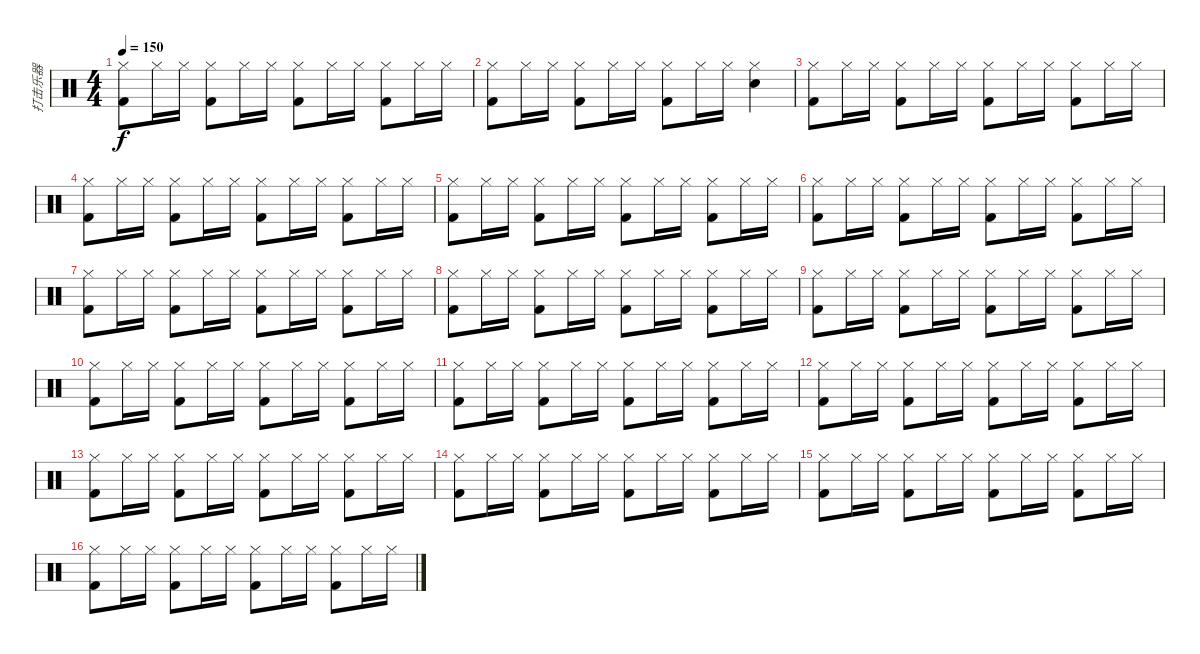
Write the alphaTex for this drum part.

\track ("打击乐器" "打击乐器") {instrument percussion}
\staff {score}
\articulation defaults
\ts (4 4)
\tempo 150
\clef neutral
\ks c
("Hi-Hat (closed)" "Kick (hit) 2").8{dy f} "Hi-Hat (closed)".16 "Hi-Hat (closed)".16 ("Hi-Hat (closed)" "Kick (hit) 2").8 "Hi-Hat (closed)".16 "Hi-Hat (closed)".16 ("Hi-Hat (closed)" "Kick (hit) 2").8 "Hi-Hat (closed)".16 "Hi-Hat (closed)".16 ("Hi-Hat (closed)" "Kick (hit) 2").8 "Hi-Hat (closed)".16 "Hi-Hat (closed)".16 |
("Hi-Hat (closed)" "Kick (hit) 2").8 "Hi-Hat (closed)".16 "Hi-Hat (closed)".16 ("Hi-Hat (closed)" "Kick (hit) 2").8 "Hi-Hat (closed)".16 "Hi-Hat (closed)".16 ("Hi-Hat (closed)" "Kick (hit) 2").8 "Hi-Hat (closed)".16 "Hi-Hat (closed)".16 ("Hi-Hat (closed)" "Snare (hit) 2").4 |
("Hi-Hat (closed)" "Kick (hit) 2").8 "Hi-Hat (closed)".16 "Hi-Hat (closed)".16 ("Hi-Hat (closed)" "Kick (hit) 2").8 "Hi-Hat (closed)".16 "Hi-Hat (closed)".16 ("Hi-Hat (closed)" "Kick (hit) 2").8 "Hi-Hat (closed)".16 "Hi-Hat (closed)".16 ("Hi-Hat (closed)" "Kick (hit) 2").8 "Hi-Hat (closed)".16 "Hi-Hat (closed)".16 |
("Hi-Hat (closed)" "Kick (hit) 2").8 "Hi-Hat (closed)".16 "Hi-Hat (closed)".16 ("Hi-Hat (closed)" "Kick (hit) 2").8 "Hi-Hat (closed)".16 "Hi-Hat (closed)".16 ("Hi-Hat (closed)" "Kick (hit) 2").8 "Hi-Hat (closed)".16 "Hi-Hat (closed)".16 ("Hi-Hat (closed)" "Kick (hit) 2").8 "Hi-Hat (closed)".16 "Hi-Hat (closed)".16 |
("Hi-Hat (closed)" "Kick (hit) 2").8 "Hi-Hat (closed)".16 "Hi-Hat (closed)".16 ("Hi-Hat (closed)" "Kick (hit) 2").8 "Hi-Hat (closed)".16 "Hi-Hat (closed)".16 ("Hi-Hat (closed)" "Kick (hit) 2").8 "Hi-Hat (closed)".16 "Hi-Hat (closed)".16 ("Hi-Hat (closed)" "Kick (hit) 2").8 "Hi-Hat (closed)".16 "Hi-Hat (closed)".16 |
("Hi-Hat (closed)" "Kick (hit) 2").8 "Hi-Hat (closed)".16 "Hi-Hat (closed)".16 ("Hi-Hat (closed)" "Kick (hit) 2").8 "Hi-Hat (closed)".16 "Hi-Hat (closed)".16 ("Hi-Hat (closed)" "Kick (hit) 2").8 "Hi-Hat (closed)".16 "Hi-Hat (closed)".16 ("Hi-Hat (closed)" "Kick (hit) 2").8 "Hi-Hat (closed)".16 "Hi-Hat (closed)".16 |
("Hi-Hat (closed)" "Kick (hit) 2").8 "Hi-Hat (closed)".16 "Hi-Hat (closed)".16 ("Hi-Hat (closed)" "Kick (hit) 2").8 "Hi-Hat (closed)".16 "Hi-Hat (closed)".16 ("Hi-Hat (closed)" "Kick (hit) 2").8 "Hi-Hat (closed)".16 "Hi-Hat (closed)".16 ("Hi-Hat (closed)" "Kick (hit) 2").8 "Hi-Hat (closed)".16 "Hi-Hat (closed)".16 |
("Hi-Hat (closed)" "Kick (hit) 2").8 "Hi-Hat (closed)".16 "Hi-Hat (closed)".16 ("Hi-Hat (closed)" "Kick (hit) 2").8 "Hi-Hat (closed)".16 "Hi-Hat (closed)".16 ("Hi-Hat (closed)" "Kick (hit) 2").8 "Hi-Hat (closed)".16 "Hi-Hat (closed)".16 ("Hi-Hat (closed)" "Kick (hit) 2").8 "Hi-Hat (closed)".16 "Hi-Hat (closed)".16 |
("Hi-Hat (closed)" "Kick (hit) 2").8 "Hi-Hat (closed)".16 "Hi-Hat (closed)".16 ("Hi-Hat (closed)" "Kick (hit) 2").8 "Hi-Hat (closed)".16 "Hi-Hat (closed)".16 ("Hi-Hat (closed)" "Kick (hit) 2").8 "Hi-Hat (closed)".16 "Hi-Hat (closed)".16 ("Hi-Hat (closed)" "Kick (hit) 2").8 "Hi-Hat (closed)".16 "Hi-Hat (closed)".16 |
("Hi-Hat (closed)" "Kick (hit) 2").8 "Hi-Hat (closed)".16 "Hi-Hat (closed)".16 ("Hi-Hat (closed)" "Kick (hit) 2").8 "Hi-Hat (closed)".16 "Hi-Hat (closed)".16 ("Hi-Hat (closed)" "Kick (hit) 2").8 "Hi-Hat (closed)".16 "Hi-Hat (closed)".16 ("Hi-Hat (closed)" "Kick (hit) 2").8 "Hi-Hat (closed)".16 "Hi-Hat (closed)".16 |
("Hi-Hat (closed)" "Kick (hit) 2").8 "Hi-Hat (closed)".16 "Hi-Hat (closed)".16 ("Hi-Hat (closed)" "Kick (hit) 2").8 "Hi-Hat (closed)".16 "Hi-Hat (closed)".16 ("Hi-Hat (closed)" "Kick (hit) 2").8 "Hi-Hat (closed)".16 "Hi-Hat (closed)".16 ("Hi-Hat (closed)" "Kick (hit) 2").8 "Hi-Hat (closed)".16 "Hi-Hat (closed)".16 |
("Hi-Hat (closed)" "Kick (hit) 2").8 "Hi-Hat (closed)".16 "Hi-Hat (closed)".16 ("Hi-Hat (closed)" "Kick (hit) 2").8 "Hi-Hat (closed)".16 "Hi-Hat (closed)".16 ("Hi-Hat (closed)" "Kick (hit) 2").8 "Hi-Hat (closed)".16 "Hi-Hat (closed)".16 ("Hi-Hat (closed)" "Kick (hit) 2").8 "Hi-Hat (closed)".16 "Hi-Hat (closed)".16 |
("Hi-Hat (closed)" "Kick (hit) 2").8 "Hi-Hat (closed)".16 "Hi-Hat (closed)".16 ("Hi-Hat (closed)" "Kick (hit) 2").8 "Hi-Hat (closed)".16 "Hi-Hat (closed)".16 ("Hi-Hat (closed)" "Kick (hit) 2").8 "Hi-Hat (closed)".16 "Hi-Hat (closed)".16 ("Hi-Hat (closed)" "Kick (hit) 2").8 "Hi-Hat (closed)".16 "Hi-Hat (closed)".16 |
("Hi-Hat (closed)" "Kick (hit) 2").8 "Hi-Hat (closed)".16 "Hi-Hat (closed)".16 ("Hi-Hat (closed)" "Kick (hit) 2").8 "Hi-Hat (closed)".16 "Hi-Hat (closed)".16 ("Hi-Hat (closed)" "Kick (hit) 2").8 "Hi-Hat (closed)".16 "Hi-Hat (closed)".16 ("Hi-Hat (closed)" "Kick (hit) 2").8 "Hi-Hat (closed)".16 "Hi-Hat (closed)".16 |
("Hi-Hat (closed)" "Kick (hit) 2").8 "Hi-Hat (closed)".16 "Hi-Hat (closed)".16 ("Hi-Hat (closed)" "Kick (hit) 2").8 "Hi-Hat (closed)".16 "Hi-Hat (closed)".16 ("Hi-Hat (closed)" "Kick (hit) 2").8 "Hi-Hat (closed)".16 "Hi-Hat (closed)".16 ("Hi-Hat (closed)" "Kick (hit) 2").8 "Hi-Hat (closed)".16 "Hi-Hat (closed)".16 |
("Hi-Hat (closed)" "Kick (hit) 2").8 "Hi-Hat (closed)".16 "Hi-Hat (closed)".16 ("Hi-Hat (closed)" "Kick (hit) 2").8 "Hi-Hat (closed)".16 "Hi-Hat (closed)".16 ("Hi-Hat (closed)" "Kick (hit) 2").8 "Hi-Hat (closed)".16 "Hi-Hat (closed)".16 ("Hi-Hat (closed)" "Kick (hit) 2").8 "Hi-Hat (closed)".16 "Hi-Hat (closed)".16
